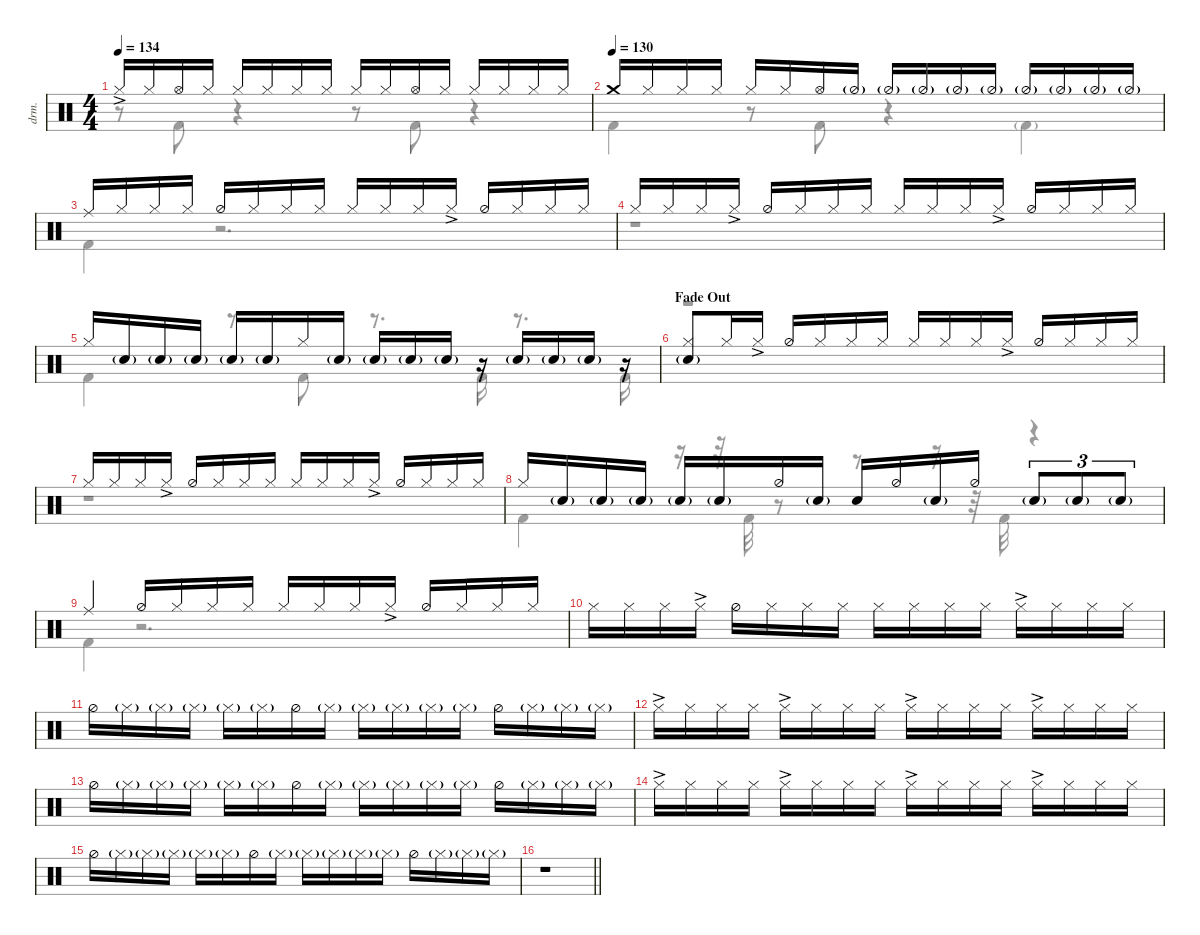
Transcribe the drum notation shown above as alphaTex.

\defaultSystemsLayout 4
\hideDynamics
\bracketExtendMode nobrackets
\track ("Drums" "drm.") {instrument percussion}
\staff {score}
\articulation defaults
\voice
\ts (4 4)
\tempo 134
\clef neutral
\ks c "Hi-Hat (closed)"{ac}.16{dy mf} "Hi-Hat (closed)".16 "Hi-Hat (open)".16 "Hi-Hat (closed)".16 "Hi-Hat (closed)".16 "Hi-Hat (closed)".16 "Hi-Hat (closed)".16 "Hi-Hat (closed)".16 "Hi-Hat (closed)".16 "Hi-Hat (closed)".16 "Hi-Hat (open)".16 "Hi-Hat (closed)".16 "Hi-Hat (closed)".16 "Hi-Hat (closed)".16 "Hi-Hat (closed)".16 "Hi-Hat (closed)".16
|
\tempo (130)
"Crash medium (hit)".16 "Hi-Hat (closed)".16 "Hi-Hat (closed)".16 "Hi-Hat (closed)".16 "Hi-Hat (closed)".16 "Hi-Hat (closed)".16 "Hi-Hat (open)".16 "Hi-Hat (half)"{g}.16 "Hi-Hat (half)"{g}.16 "Hi-Hat (half)"{g}.16 "Hi-Hat (half)"{g}.16 "Hi-Hat (half)"{g}.16 "Hi-Hat (half)"{g}.16 "Hi-Hat (half)"{g}.16 "Hi-Hat (half)"{g}.16 "Hi-Hat (half)"{g}.16 |
"Ride (middle)".16 "Hi-Hat (closed)".16 "Hi-Hat (closed)".16 "Hi-Hat (closed)".16 "Hi-Hat (half)".16 "Hi-Hat (closed)".16 "Hi-Hat (closed)".16 "Hi-Hat (closed)".16 "Hi-Hat (closed)".16 "Hi-Hat (closed)".16 "Hi-Hat (closed)".16 "Hi-Hat (closed)"{ac}.16 "Hi-Hat (half)".16 "Hi-Hat (closed)".16 "Hi-Hat (closed)".16 "Hi-Hat (closed)".16 |
"Hi-Hat (closed)".16 "Hi-Hat (closed)".16 "Hi-Hat (closed)".16 "Hi-Hat (closed)"{ac}.16 "Hi-Hat (half)".16 "Hi-Hat (closed)".16 "Hi-Hat (closed)".16 "Hi-Hat (closed)".16 "Hi-Hat (closed)".16 "Hi-Hat (closed)".16 "Hi-Hat (closed)".16 "Hi-Hat (closed)"{ac}.16 "Hi-Hat (half)".16 "Hi-Hat (closed)".16 "Hi-Hat (closed)".16 "Hi-Hat (closed)".16 |
"Hi-Hat (closed)".16 "Snare (hit) 2"{g}.16 "Snare (hit) 2"{g}.16 "Snare (hit) 2"{g}.16 "Snare (hit) 2"{g}.16 "Snare (hit) 2"{g}.16 "Hi-Hat (closed)".16 "Snare (hit) 2"{g}.16 "Snare (hit) 2"{g}.16 "Snare (hit) 2"{g}.16 "Snare (hit) 2"{g}.16 r.16 "Snare (hit) 2"{g}.16 "Snare (hit) 2"{g}.16 "Snare (hit) 2"{g}.16 r.16 |
\section ("" "Fade Out")
("Hi-Hat (closed)" "Snare (hit) 2"{g}).8 "Hi-Hat (closed)".16 "Hi-Hat (closed)"{ac}.16 "Hi-Hat (half)".16 "Hi-Hat (closed)".16 "Hi-Hat (closed)".16 "Hi-Hat (closed)".16 "Hi-Hat (closed)".16 "Hi-Hat (closed)".16 "Hi-Hat (closed)".16 "Hi-Hat (closed)"{ac}.16 "Hi-Hat (half)".16 "Hi-Hat (closed)".16 "Hi-Hat (closed)".16 "Hi-Hat (closed)".16 |
"Hi-Hat (closed)".16 "Hi-Hat (closed)".16 "Hi-Hat (closed)".16 "Hi-Hat (closed)"{ac}.16 "Hi-Hat (half)".16 "Hi-Hat (closed)".16 "Hi-Hat (closed)".16 "Hi-Hat (closed)".16 "Hi-Hat (closed)".16 "Hi-Hat (closed)".16 "Hi-Hat (closed)".16 "Hi-Hat (closed)"{ac}.16 "Hi-Hat (half)".16 "Hi-Hat (closed)".16 "Hi-Hat (closed)".16 "Hi-Hat (closed)".16 |
"Hi-Hat (closed)".16 "Snare (hit) 2"{g}.16 "Snare (hit) 2"{g}.16 "Snare (hit) 2"{g}.16 "Snare (hit) 2"{g}.16 "Snare (hit) 2"{g}.16 "Hi-Hat (half)".16 "Snare (hit) 2"{g}.16 "Snare (hit) 2".16 "Hi-Hat (half)".16 "Snare (hit) 2"{g}.16 "Hi-Hat (half)".16 "Snare (hit) 2"{g}.8{tu (3 2)} "Snare (hit) 2"{g}.8{tu (3 2)} "Snare (hit) 2"{g}.8{tu (3 2)} |
"Ride (middle)".4 "Hi-Hat (half)".16 "Hi-Hat (closed)".16 "Hi-Hat (closed)".16 "Hi-Hat (closed)".16 "Hi-Hat (closed)".16 "Hi-Hat (closed)".16 "Hi-Hat (closed)".16 "Hi-Hat (closed)"{ac}.16 "Hi-Hat (half)".16 "Hi-Hat (closed)".16 "Hi-Hat (closed)".16 "Hi-Hat (closed)".16 |
"Hi-Hat (closed)".16 "Hi-Hat (closed)".16 "Hi-Hat (closed)".16 "Hi-Hat (closed)"{ac}.16 "Hi-Hat (half)".16 "Hi-Hat (closed)".16 "Hi-Hat (closed)".16 "Hi-Hat (closed)".16 "Hi-Hat (closed)".16 "Hi-Hat (closed)".16 "Hi-Hat (closed)".16 "Hi-Hat (closed)".16 "Hi-Hat (closed)"{ac}.16 "Hi-Hat (closed)".16 "Hi-Hat (closed)".16 "Hi-Hat (closed)".16 |
"Hi-Hat (half)".16 "Hi-Hat (closed)"{g}.16 "Hi-Hat (closed)"{g}.16 "Hi-Hat (closed)"{g}.16 "Hi-Hat (closed)"{g}.16 "Hi-Hat (closed)"{g}.16 "Hi-Hat (half)".16 "Hi-Hat (closed)"{g}.16 "Hi-Hat (closed)"{g}.16 "Hi-Hat (closed)"{g}.16 "Hi-Hat (closed)"{g}.16 "Hi-Hat (closed)"{g}.16 "Hi-Hat (half)".16 "Hi-Hat (closed)"{g}.16 "Hi-Hat (closed)"{g}.16 "Hi-Hat (closed)"{g}.16 |
"Hi-Hat (closed)"{ac}.16 "Hi-Hat (closed)".16 "Hi-Hat (closed)".16 "Hi-Hat (closed)".16 "Hi-Hat (closed)"{ac}.16 "Hi-Hat (closed)".16 "Hi-Hat (closed)".16 "Hi-Hat (closed)".16 "Hi-Hat (closed)"{ac}.16 "Hi-Hat (closed)".16 "Hi-Hat (closed)".16 "Hi-Hat (closed)".16 "Hi-Hat (closed)"{ac}.16 "Hi-Hat (closed)".16 "Hi-Hat (closed)".16 "Hi-Hat (closed)".16 |
"Hi-Hat (half)".16 "Hi-Hat (closed)"{g}.16 "Hi-Hat (closed)"{g}.16 "Hi-Hat (closed)"{g}.16 "Hi-Hat (closed)"{g}.16 "Hi-Hat (closed)"{g}.16 "Hi-Hat (half)".16 "Hi-Hat (closed)"{g}.16 "Hi-Hat (closed)"{g}.16 "Hi-Hat (closed)"{g}.16 "Hi-Hat (closed)"{g}.16 "Hi-Hat (closed)"{g}.16 "Hi-Hat (half)".16 "Hi-Hat (closed)"{g}.16 "Hi-Hat (closed)"{g}.16 "Hi-Hat (closed)"{g}.16 |
"Hi-Hat (closed)"{ac}.16 "Hi-Hat (closed)".16 "Hi-Hat (closed)".16 "Hi-Hat (closed)".16 "Hi-Hat (closed)"{ac}.16 "Hi-Hat (closed)".16 "Hi-Hat (closed)".16 "Hi-Hat (closed)".16 "Hi-Hat (closed)"{ac}.16 "Hi-Hat (closed)".16 "Hi-Hat (closed)".16 "Hi-Hat (closed)".16 "Hi-Hat (closed)"{ac}.16 "Hi-Hat (closed)".16 "Hi-Hat (closed)".16 "Hi-Hat (closed)".16 |
"Hi-Hat (half)".16 "Hi-Hat (closed)"{g}.16 "Hi-Hat (closed)"{g}.16 "Hi-Hat (closed)"{g}.16 "Hi-Hat (closed)"{g}.16 "Hi-Hat (closed)"{g}.16 "Hi-Hat (half)".16 "Hi-Hat (closed)"{g}.16 "Hi-Hat (closed)"{g}.16 "Hi-Hat (closed)"{g}.16 "Hi-Hat (closed)"{g}.16 "Hi-Hat (closed)"{g}.16 "Hi-Hat (half)".16 "Hi-Hat (closed)"{g}.16 "Hi-Hat (closed)"{g}.16 "Hi-Hat (closed)"{g}.16 |
\barLineRight lightlight
r.1
\voice
\clef neutral
\ottava regular
\simile none
\ks c
r.8{dy mf} "Kick (hit) 2".8 r.4 r.8 "Kick (hit) 2".8 r.4 |
"Kick (hit) 2".4 r.8 "Kick (hit) 2".8 r.4 "Kick (hit) 2"{g}.4 |
"Kick (hit) 2".4 r.2{d} |
r.1 |
"Kick (hit) 2".4 r.8 "Kick (hit) 2".8 r.8{d} "Kick (hit) 2".16 r.8{d} "Kick (hit) 2".16 |
r.1 |
r.1 |
"Kick (hit) 2".4 r.16 r.32 "Kick (hit) 2".32 r.8 r.8 r.16 r.32 "Kick (hit) 2".32 r.4 |
"Kick (hit) 2".4 r.2{d} |
|
|
|
|
|
|
\barLineRight lightlight
